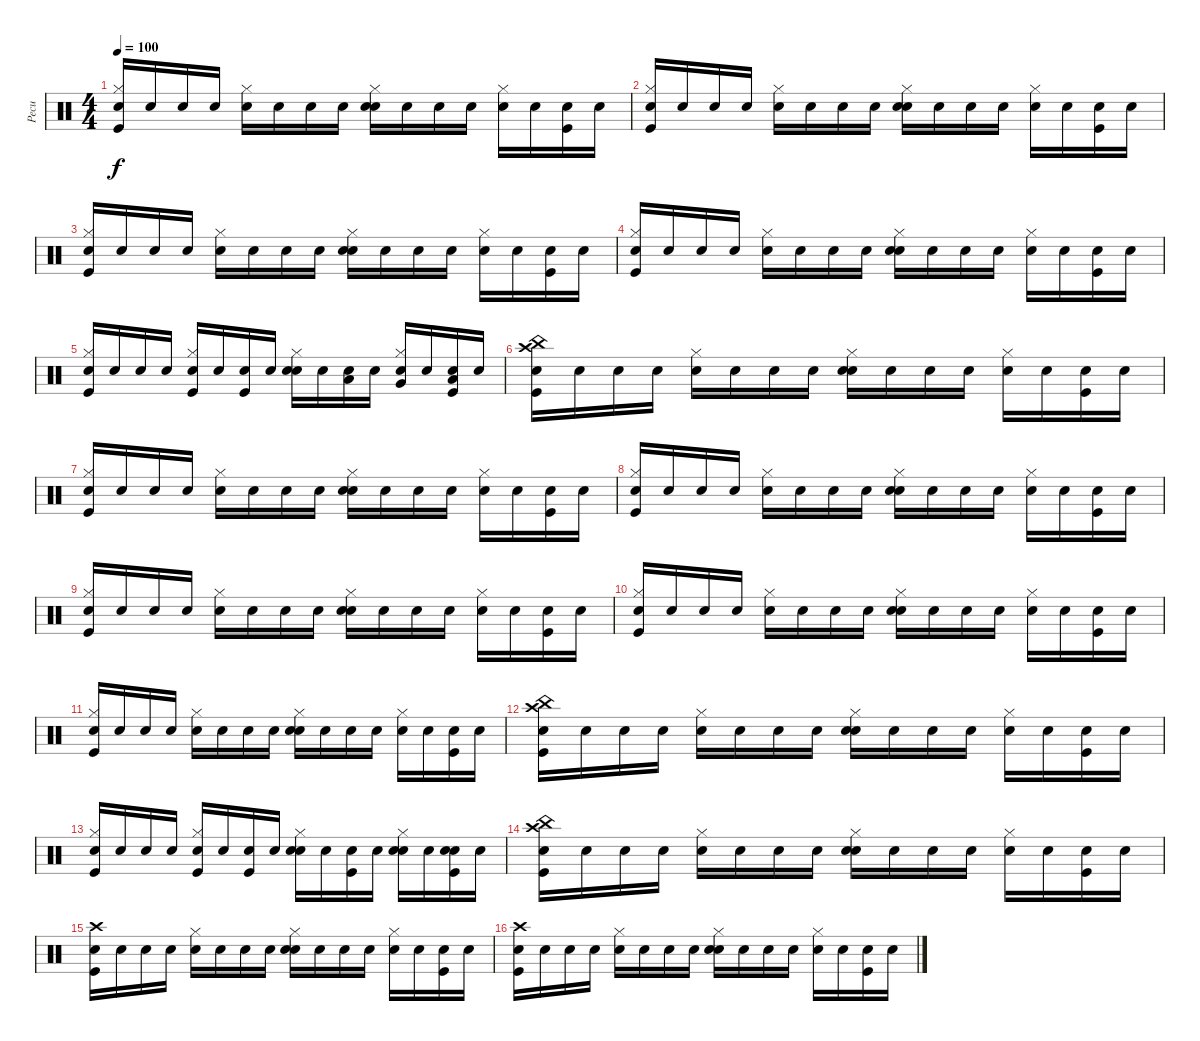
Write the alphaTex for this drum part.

\track ("Pecu" "Pecu") {instrument percussion}
\staff {score}
\articulation defaults
\ts (4 4)
\tempo 100
\clef neutral
\ks c
("Snare (hit)" "Hi-Hat (closed)" "Kick (hit)").16{dy f} "Snare (hit)".16 "Snare (hit)".16 "Snare (hit)".16 ("Snare (hit)" "Hi-Hat (closed)").16 "Snare (hit)".16 "Snare (hit)".16 "Snare (hit)".16 ("Snare (hit)" "Hi-Hat (closed)" "Snare (hit) 2").16 "Snare (hit)".16 "Snare (hit)".16 "Snare (hit)".16 ("Snare (hit)" "Hi-Hat (closed)").16 "Snare (hit)".16 ("Snare (hit)" "Kick (hit)").16 "Snare (hit)".16 |
("Snare (hit)" "Hi-Hat (closed)" "Kick (hit)").16 "Snare (hit)".16 "Snare (hit)".16 "Snare (hit)".16 ("Snare (hit)" "Hi-Hat (closed)").16 "Snare (hit)".16 "Snare (hit)".16 "Snare (hit)".16 ("Snare (hit)" "Hi-Hat (closed)" "Snare (hit) 2").16 "Snare (hit)".16 "Snare (hit)".16 "Snare (hit)".16 ("Snare (hit)" "Hi-Hat (closed)").16 "Snare (hit)".16 ("Snare (hit)" "Kick (hit)").16 "Snare (hit)".16 |
("Snare (hit)" "Hi-Hat (closed)" "Kick (hit)").16 "Snare (hit)".16 "Snare (hit)".16 "Snare (hit)".16 ("Snare (hit)" "Hi-Hat (closed)").16 "Snare (hit)".16 "Snare (hit)".16 "Snare (hit)".16 ("Snare (hit)" "Hi-Hat (closed)" "Snare (hit) 2").16 "Snare (hit)".16 "Snare (hit)".16 "Snare (hit)".16 ("Snare (hit)" "Hi-Hat (closed)").16 "Snare (hit)".16 ("Snare (hit)" "Kick (hit)").16 "Snare (hit)".16 |
("Snare (hit)" "Hi-Hat (closed)" "Kick (hit)").16 "Snare (hit)".16 "Snare (hit)".16 "Snare (hit)".16 ("Snare (hit)" "Hi-Hat (closed)").16 "Snare (hit)".16 "Snare (hit)".16 "Snare (hit)".16 ("Snare (hit)" "Hi-Hat (closed)" "Snare (hit) 2").16 "Snare (hit)".16 "Snare (hit)".16 "Snare (hit)".16 ("Snare (hit)" "Hi-Hat (closed)").16 "Snare (hit)".16 ("Snare (hit)" "Kick (hit)").16 "Snare (hit)".16 |
("Snare (hit)" "Hi-Hat (closed)" "Kick (hit)").16 "Snare (hit)".16 "Snare (hit)".16 "Snare (hit)".16 ("Snare (hit)" "Hi-Hat (closed)" "Kick (hit)").16 "Snare (hit)".16 ("Snare (hit)" "Kick (hit)").16 "Snare (hit)".16 ("Snare (hit)" "Hi-Hat (closed)" "Snare (hit) 2").16 "Snare (hit)".16 ("Snare (hit)" "Low Tom (hit)").16 "Snare (hit)".16 ("Snare (hit)" "Hi-Hat (closed)" "Very Low Tom (hit)").16 "Snare (hit)".16 ("Snare (hit)" "Low Floor Tom (hit)" "Kick (hit)").16 "Snare (hit)".16 |
("Snare (hit)" "Crash high (hit)" "China (hit)" "Kick (hit)").16 "Snare (hit)".16 "Snare (hit)".16 "Snare (hit)".16 ("Snare (hit)" "Hi-Hat (closed)").16 "Snare (hit)".16 "Snare (hit)".16 "Snare (hit)".16 ("Snare (hit)" "Hi-Hat (closed)" "Snare (hit) 2").16 "Snare (hit)".16 "Snare (hit)".16 "Snare (hit)".16 ("Snare (hit)" "Hi-Hat (closed)").16 "Snare (hit)".16 ("Snare (hit)" "Kick (hit)").16 "Snare (hit)".16 |
("Snare (hit)" "Hi-Hat (closed)" "Kick (hit)").16 "Snare (hit)".16 "Snare (hit)".16 "Snare (hit)".16 ("Snare (hit)" "Hi-Hat (closed)").16 "Snare (hit)".16 "Snare (hit)".16 "Snare (hit)".16 ("Snare (hit)" "Hi-Hat (closed)" "Snare (hit) 2").16 "Snare (hit)".16 "Snare (hit)".16 "Snare (hit)".16 ("Snare (hit)" "Hi-Hat (closed)").16 "Snare (hit)".16 ("Snare (hit)" "Kick (hit)").16 "Snare (hit)".16 |
("Snare (hit)" "Hi-Hat (closed)" "Kick (hit)").16 "Snare (hit)".16 "Snare (hit)".16 "Snare (hit)".16 ("Snare (hit)" "Hi-Hat (closed)").16 "Snare (hit)".16 "Snare (hit)".16 "Snare (hit)".16 ("Snare (hit)" "Hi-Hat (closed)" "Snare (hit) 2").16 "Snare (hit)".16 "Snare (hit)".16 "Snare (hit)".16 ("Snare (hit)" "Hi-Hat (closed)").16 "Snare (hit)".16 ("Snare (hit)" "Kick (hit)").16 "Snare (hit)".16 |
("Snare (hit)" "Hi-Hat (closed)" "Kick (hit)").16 "Snare (hit)".16 "Snare (hit)".16 "Snare (hit)".16 ("Snare (hit)" "Hi-Hat (closed)").16 "Snare (hit)".16 "Snare (hit)".16 "Snare (hit)".16 ("Snare (hit)" "Hi-Hat (closed)" "Snare (hit) 2").16 "Snare (hit)".16 "Snare (hit)".16 "Snare (hit)".16 ("Snare (hit)" "Hi-Hat (closed)").16 "Snare (hit)".16 ("Snare (hit)" "Kick (hit)").16 "Snare (hit)".16 |
("Snare (hit)" "Hi-Hat (closed)" "Kick (hit)").16 "Snare (hit)".16 "Snare (hit)".16 "Snare (hit)".16 ("Snare (hit)" "Hi-Hat (closed)").16 "Snare (hit)".16 "Snare (hit)".16 "Snare (hit)".16 ("Snare (hit)" "Hi-Hat (closed)" "Snare (hit) 2").16 "Snare (hit)".16 "Snare (hit)".16 "Snare (hit)".16 ("Snare (hit)" "Hi-Hat (closed)").16 "Snare (hit)".16 ("Snare (hit)" "Kick (hit)").16 "Snare (hit)".16 |
("Snare (hit)" "Hi-Hat (closed)" "Kick (hit)").16 "Snare (hit)".16 "Snare (hit)".16 "Snare (hit)".16 ("Snare (hit)" "Hi-Hat (closed)").16 "Snare (hit)".16 "Snare (hit)".16 "Snare (hit)".16 ("Snare (hit)" "Hi-Hat (closed)" "Snare (hit) 2").16 "Snare (hit)".16 "Snare (hit)".16 "Snare (hit)".16 ("Snare (hit)" "Hi-Hat (closed)").16 "Snare (hit)".16 ("Snare (hit)" "Kick (hit)").16 "Snare (hit)".16 |
("Snare (hit)" "Crash high (hit)" "China (hit)" "Kick (hit)").16 "Snare (hit)".16 "Snare (hit)".16 "Snare (hit)".16 ("Snare (hit)" "Hi-Hat (closed)").16 "Snare (hit)".16 "Snare (hit)".16 "Snare (hit)".16 ("Snare (hit)" "Hi-Hat (closed)" "Snare (hit) 2").16 "Snare (hit)".16 "Snare (hit)".16 "Snare (hit)".16 ("Snare (hit)" "Hi-Hat (closed)").16 "Snare (hit)".16 ("Snare (hit)" "Kick (hit)").16 "Snare (hit)".16 |
("Snare (hit)" "Hi-Hat (closed)" "Kick (hit)").16 "Snare (hit)".16 "Snare (hit)".16 "Snare (hit)".16 ("Snare (hit)" "Hi-Hat (closed)" "Kick (hit)").16 "Snare (hit)".16 ("Snare (hit)" "Kick (hit)").16 "Snare (hit)".16 ("Snare (hit)" "Hi-Hat (closed)" "Snare (hit) 2").16 "Snare (hit)".16 ("Snare (hit)" "Kick (hit)").16 "Snare (hit)".16 ("Snare (hit)" "Hi-Hat (closed)" "Snare (hit) 2").16 "Snare (hit)".16 ("Snare (hit)" "Snare (hit) 2" "Kick (hit)").16 "Snare (hit)".16 |
("Snare (hit)" "Crash high (hit)" "China (hit)" "Kick (hit)").16 "Snare (hit)".16 "Snare (hit)".16 "Snare (hit)".16 ("Snare (hit)" "Hi-Hat (closed)").16 "Snare (hit)".16 "Snare (hit)".16 "Snare (hit)".16 ("Snare (hit)" "Hi-Hat (closed)" "Snare (hit) 2").16 "Snare (hit)".16 "Snare (hit)".16 "Snare (hit)".16 ("Snare (hit)" "Hi-Hat (closed)").16 "Snare (hit)".16 ("Snare (hit)" "Kick (hit)").16 "Snare (hit)".16 |
("Snare (hit)" "Crash high (hit)" "Kick (hit)").16 "Snare (hit)".16 "Snare (hit)".16 "Snare (hit)".16 ("Snare (hit)" "Hi-Hat (closed)").16 "Snare (hit)".16 "Snare (hit)".16 "Snare (hit)".16 ("Snare (hit)" "Hi-Hat (closed)" "Snare (hit) 2").16 "Snare (hit)".16 "Snare (hit)".16 "Snare (hit)".16 ("Snare (hit)" "Hi-Hat (closed)").16 "Snare (hit)".16 ("Snare (hit)" "Kick (hit)").16 "Snare (hit)".16 |
("Snare (hit)" "Crash high (hit)" "Kick (hit)").16 "Snare (hit)".16 "Snare (hit)".16 "Snare (hit)".16 ("Snare (hit)" "Hi-Hat (closed)").16 "Snare (hit)".16 "Snare (hit)".16 "Snare (hit)".16 ("Snare (hit)" "Hi-Hat (closed)" "Snare (hit) 2").16 "Snare (hit)".16 "Snare (hit)".16 "Snare (hit)".16 ("Snare (hit)" "Hi-Hat (closed)").16 "Snare (hit)".16 ("Snare (hit)" "Kick (hit)").16 "Snare (hit)".16
